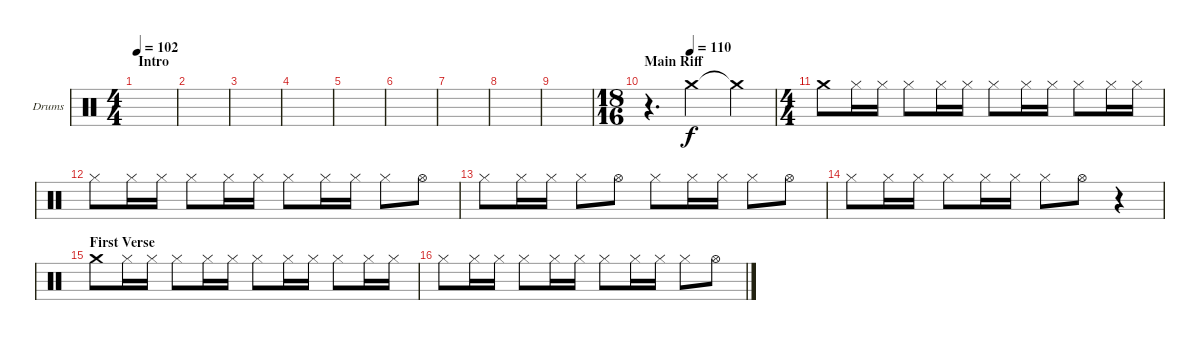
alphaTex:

\defaultSystemsLayout 4
\bracketExtendMode groupsimilarinstruments
\firstSystemTrackNameOrientation horizontal
\otherSystemsTrackNameOrientation horizontal
\track ("Drumkit" "Drums") {instrument percussion}
\staff {score}
\articulation defaults
\ts (4 4)
\section ("" "Intro")
\tempo 102
\clef neutral
\scale
0.472222
\ks c
|
\scale
0.263889 |
\scale
0.263889 |
\scale
0.333333 |
\scale
0.333333 |
\scale
0.333333 |
\scale
0.333333 |
\scale
0.333333 |
\scale
0.333333 |
\ts (18 16)
\section ("" "Main Riff")
\tempo (110 0.333333)
r.4{d} "Crash medium (hit)".2 "Crash medium (hit)"{t}.4 |
\ts (4 4)
"Crash medium (hit)".8 "Hi-Hat (closed)".16 "Hi-Hat (closed)".16 "Hi-Hat (closed)".8 "Hi-Hat (closed)".16 "Hi-Hat (closed)".16 "Hi-Hat (closed)".8 "Hi-Hat (closed)".16 "Hi-Hat (closed)".16 "Hi-Hat (closed)".8 "Hi-Hat (closed)".16 "Hi-Hat (closed)".16 |
"Hi-Hat (closed)".8 "Hi-Hat (closed)".16 "Hi-Hat (closed)".16 "Hi-Hat (closed)".8 "Hi-Hat (closed)".16 "Hi-Hat (closed)".16 "Hi-Hat (closed)".8 "Hi-Hat (closed)".16 "Hi-Hat (closed)".16 "Hi-Hat (closed)".8 "Hi-Hat (open)".8 |
"Hi-Hat (closed)".8 "Hi-Hat (closed)".16 "Hi-Hat (closed)".16 "Hi-Hat (closed)".8 "Hi-Hat (open)".8 "Hi-Hat (closed)".8 "Hi-Hat (closed)".16 "Hi-Hat (closed)".16 "Hi-Hat (closed)".8 "Hi-Hat (open)".8 |
"Hi-Hat (closed)".8 "Hi-Hat (closed)".16 "Hi-Hat (closed)".16 "Hi-Hat (closed)".8 "Hi-Hat (closed)".16 "Hi-Hat (closed)".16 "Hi-Hat (closed)".8 "Hi-Hat (open)".8 r.4 |
\section ("" "First Verse")
"Crash medium (hit)".8 "Hi-Hat (closed)".16 "Hi-Hat (closed)".16 "Hi-Hat (closed)".8 "Hi-Hat (closed)".16 "Hi-Hat (closed)".16 "Hi-Hat (closed)".8 "Hi-Hat (closed)".16 "Hi-Hat (closed)".16 "Hi-Hat (closed)".8 "Hi-Hat (closed)".16 "Hi-Hat (closed)".16 |
"Hi-Hat (closed)".8 "Hi-Hat (closed)".16 "Hi-Hat (closed)".16 "Hi-Hat (closed)".8 "Hi-Hat (closed)".16 "Hi-Hat (closed)".16 "Hi-Hat (closed)".8 "Hi-Hat (closed)".16 "Hi-Hat (closed)".16 "Hi-Hat (closed)".8 "Hi-Hat (open)".8
